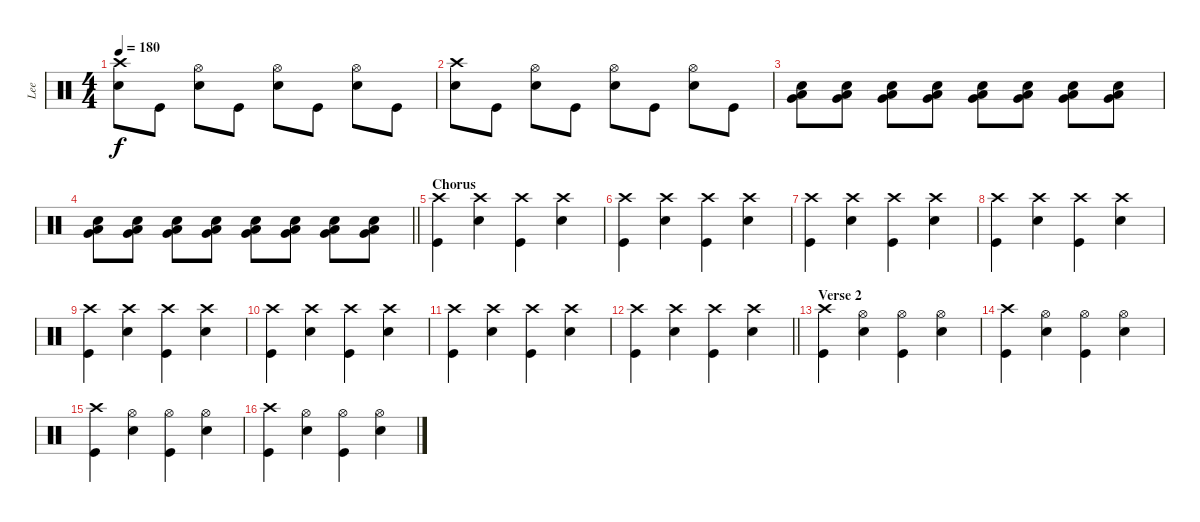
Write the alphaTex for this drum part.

\track ("Lee" "Lee") {instrument percussion}
\staff {score}
\articulation defaults
\ts (4 4)
\tempo 180
\clef neutral
\ks c
("Snare (hit) 2" "Crash high (hit)").8{dy f} "Kick (hit)".8 ("Snare (hit) 2" "Hi-Hat (open)").8 "Kick (hit)".8 ("Snare (hit) 2" "Hi-Hat (open)").8 "Kick (hit)".8 ("Snare (hit) 2" "Hi-Hat (open)").8 "Kick (hit)".8 |
("Snare (hit) 2" "Crash high (hit)").8 "Kick (hit)".8 ("Snare (hit) 2" "Hi-Hat (open)").8 "Kick (hit)".8 ("Snare (hit) 2" "Hi-Hat (open)").8 "Kick (hit)".8 ("Snare (hit) 2" "Hi-Hat (open)").8 "Kick (hit)".8 |
("Very Low Tom (hit)" "Low Floor Tom (hit)" "Snare (hit) 2").8 ("Very Low Tom (hit)" "Low Floor Tom (hit)" "Snare (hit) 2").8 ("Very Low Tom (hit)" "Low Floor Tom (hit)" "Snare (hit) 2").8 ("Very Low Tom (hit)" "Low Floor Tom (hit)" "Snare (hit) 2").8 ("Very Low Tom (hit)" "Low Floor Tom (hit)" "Snare (hit) 2").8 ("Very Low Tom (hit)" "Low Floor Tom (hit)" "Snare (hit) 2").8 ("Very Low Tom (hit)" "Low Floor Tom (hit)" "Snare (hit) 2").8 ("Very Low Tom (hit)" "Low Floor Tom (hit)" "Snare (hit) 2").8 |
\barLineRight lightlight
("Very Low Tom (hit)" "Low Floor Tom (hit)" "Snare (hit) 2").8 ("Very Low Tom (hit)" "Low Floor Tom (hit)" "Snare (hit) 2").8 ("Very Low Tom (hit)" "Low Floor Tom (hit)" "Snare (hit) 2").8 ("Very Low Tom (hit)" "Low Floor Tom (hit)" "Snare (hit) 2").8 ("Very Low Tom (hit)" "Low Floor Tom (hit)" "Snare (hit) 2").8 ("Very Low Tom (hit)" "Low Floor Tom (hit)" "Snare (hit) 2").8 ("Very Low Tom (hit)" "Low Floor Tom (hit)" "Snare (hit) 2").8 ("Very Low Tom (hit)" "Low Floor Tom (hit)" "Snare (hit) 2").8 |
\section ("" "Chorus")
("Kick (hit)" "Crash high (hit)").4 ("Snare (hit) 2" "Crash high (hit)").4 ("Kick (hit)" "Crash high (hit)").4 ("Snare (hit) 2" "Crash high (hit)").4 |
("Kick (hit)" "Crash high (hit)").4 ("Snare (hit) 2" "Crash high (hit)").4 ("Kick (hit)" "Crash high (hit)").4 ("Snare (hit) 2" "Crash high (hit)").4 |
("Kick (hit)" "Crash high (hit)").4 ("Snare (hit) 2" "Crash high (hit)").4 ("Kick (hit)" "Crash high (hit)").4 ("Snare (hit) 2" "Crash high (hit)").4 |
("Kick (hit)" "Crash high (hit)").4 ("Snare (hit) 2" "Crash high (hit)").4 ("Kick (hit)" "Crash high (hit)").4 ("Snare (hit) 2" "Crash high (hit)").4 |
("Kick (hit)" "Crash high (hit)").4 ("Snare (hit) 2" "Crash high (hit)").4 ("Kick (hit)" "Crash high (hit)").4 ("Snare (hit) 2" "Crash high (hit)").4 |
("Kick (hit)" "Crash high (hit)").4 ("Snare (hit) 2" "Crash high (hit)").4 ("Kick (hit)" "Crash high (hit)").4 ("Snare (hit) 2" "Crash high (hit)").4 |
("Kick (hit)" "Crash high (hit)").4 ("Snare (hit) 2" "Crash high (hit)").4 ("Kick (hit)" "Crash high (hit)").4 ("Snare (hit) 2" "Crash high (hit)").4 |
\barLineRight lightlight
("Kick (hit)" "Crash high (hit)").4 ("Snare (hit) 2" "Crash high (hit)").4 ("Kick (hit)" "Crash high (hit)").4 ("Snare (hit) 2" "Crash high (hit)").4 |
\section ("" "Verse 2")
("Kick (hit)" "Crash high (hit)").4 ("Snare (hit) 2" "Hi-Hat (open)").4 ("Kick (hit)" "Hi-Hat (open)").4 ("Snare (hit) 2" "Hi-Hat (open)").4 |
("Kick (hit)" "Crash high (hit)").4 ("Snare (hit) 2" "Hi-Hat (open)").4 ("Kick (hit)" "Hi-Hat (open)").4 ("Snare (hit) 2" "Hi-Hat (open)").4 |
("Kick (hit)" "Crash high (hit)").4 ("Snare (hit) 2" "Hi-Hat (open)").4 ("Kick (hit)" "Hi-Hat (open)").4 ("Snare (hit) 2" "Hi-Hat (open)").4 |
("Kick (hit)" "Crash high (hit)").4 ("Snare (hit) 2" "Hi-Hat (open)").4 ("Kick (hit)" "Hi-Hat (open)").4 ("Snare (hit) 2" "Hi-Hat (open)").4
